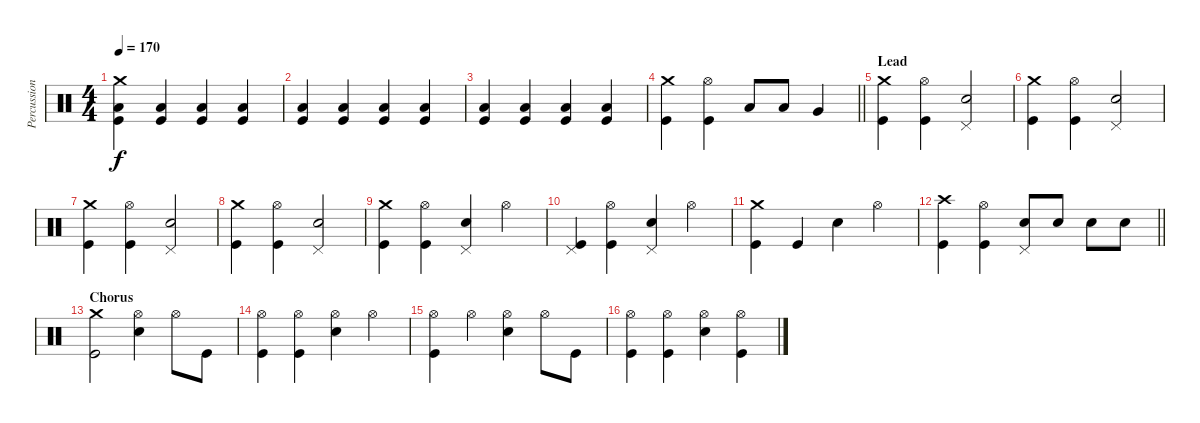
\track ("Percussion" "Percussion") {instrument percussion}
\staff {score}
\articulation defaults
\ts (4 4)
\tempo 170
\clef neutral
\ks c
("Crash medium (hit)" "Low Tom (hit)" "Kick (hit)").4{dy f} ("Low Tom (hit)" "Kick (hit)").4 ("Low Tom (hit)" "Kick (hit)").4 ("Low Tom (hit)" "Kick (hit)").4 |
("Low Tom (hit)" "Kick (hit)").4 ("Low Tom (hit)" "Kick (hit)").4 ("Low Tom (hit)" "Kick (hit)").4 ("Low Tom (hit)" "Kick (hit)").4 |
("Low Tom (hit)" "Kick (hit)").4 ("Low Tom (hit)" "Kick (hit)").4 ("Low Tom (hit)" "Kick (hit)").4 ("Low Tom (hit)" "Kick (hit)").4 |
\barLineRight lightlight
("Crash medium (hit)" "Kick (hit)").4 ("Hi-Hat (open)" "Kick (hit)").4 "Low Tom (hit)".8 "Low Tom (hit)".8 "Very Low Tom (hit)".4 |
\section ("" "Lead")
("Crash medium (hit)" "Kick (hit)").4 ("Hi-Hat (open)" "Kick (hit)").4 ("Pedal Hi-Hat (hit)" "Electric Snare (hit)").2 |
("Crash medium (hit)" "Kick (hit)").4 ("Hi-Hat (open)" "Kick (hit)").4 ("Pedal Hi-Hat (hit)" "Electric Snare (hit)").2 |
("Crash medium (hit)" "Kick (hit)").4 ("Hi-Hat (open)" "Kick (hit)").4 ("Pedal Hi-Hat (hit)" "Electric Snare (hit)").2 |
("Crash medium (hit)" "Kick (hit)").4 ("Hi-Hat (open)" "Kick (hit)").4 ("Pedal Hi-Hat (hit)" "Electric Snare (hit)").2 |
("Crash medium (hit)" "Kick (hit)").4 ("Hi-Hat (open)" "Kick (hit)").4 ("Pedal Hi-Hat (hit)" "Electric Snare (hit)").4 "Hi-Hat (open)".4 |
("Pedal Hi-Hat (hit)" "Kick (hit)").4 ("Hi-Hat (open)" "Kick (hit)").4 ("Pedal Hi-Hat (hit)" "Electric Snare (hit)").4 "Hi-Hat (open)".4 |
("Crash medium (hit)" "Kick (hit)").4 "Kick (hit)".4 "Electric Snare (hit)".4 "Hi-Hat (open)".4 |
\barLineRight lightlight
("Crash high (hit)" "Kick (hit)").4 ("Hi-Hat (open)" "Kick (hit)").4 ("Pedal Hi-Hat (hit)" "Electric Snare (hit)").8 "Electric Snare (hit)".8 "Electric Snare (hit)".8 "Electric Snare (hit)".8 |
\section ("" "Chorus")
("Crash medium (hit)" "Kick (hit)").2 ("Hi-Hat (open)" "Electric Snare (hit)").4 "Hi-Hat (open)".8 "Kick (hit)".8 |
("Hi-Hat (open)" "Kick (hit)").4 ("Hi-Hat (open)" "Kick (hit)").4 ("Hi-Hat (open)" "Electric Snare (hit)").4 "Hi-Hat (open)".4 |
("Hi-Hat (open)" "Kick (hit)").4 "Hi-Hat (open)".4 ("Hi-Hat (open)" "Electric Snare (hit)").4 "Hi-Hat (open)".8 "Kick (hit)".8 |
("Hi-Hat (open)" "Kick (hit)").4 ("Hi-Hat (open)" "Kick (hit)").4 ("Hi-Hat (open)" "Electric Snare (hit)").4 ("Hi-Hat (open)" "Kick (hit)").4
